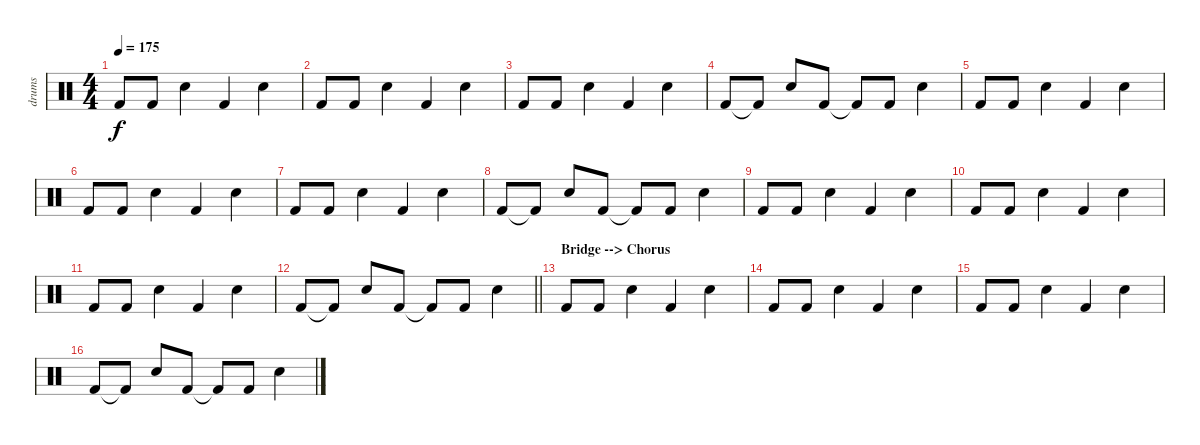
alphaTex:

\track ("drums" "drums") {instrument percussion}
\staff {score}
\articulation defaults
\ts (4 4)
\tempo 175
\clef neutral
\ks c "Kick (hit) 2".8{dy f} "Kick (hit) 2".8 "Snare (hit) 2".4 "Kick (hit) 2".4 "Snare (hit) 2".4
|
"Kick (hit) 2".8 "Kick (hit) 2".8 "Snare (hit) 2".4 "Kick (hit) 2".4 "Snare (hit) 2".4 |
"Kick (hit) 2".8 "Kick (hit) 2".8 "Snare (hit) 2".4 "Kick (hit) 2".4 "Snare (hit) 2".4 |
"Kick (hit) 2".8 "Kick (hit) 2"{t}.8 "Snare (hit) 2".8 "Kick (hit) 2".8 "Kick (hit) 2"{t}.8 "Kick (hit) 2".8 "Snare (hit) 2".4 |
"Kick (hit) 2".8 "Kick (hit) 2".8 "Snare (hit) 2".4 "Kick (hit) 2".4 "Snare (hit) 2".4 |
"Kick (hit) 2".8 "Kick (hit) 2".8 "Snare (hit) 2".4 "Kick (hit) 2".4 "Snare (hit) 2".4 |
"Kick (hit) 2".8 "Kick (hit) 2".8 "Snare (hit) 2".4 "Kick (hit) 2".4 "Snare (hit) 2".4 |
"Kick (hit) 2".8 "Kick (hit) 2"{t}.8 "Snare (hit) 2".8 "Kick (hit) 2".8 "Kick (hit) 2"{t}.8 "Kick (hit) 2".8 "Snare (hit) 2".4 |
"Kick (hit) 2".8 "Kick (hit) 2".8 "Snare (hit) 2".4 "Kick (hit) 2".4 "Snare (hit) 2".4 |
"Kick (hit) 2".8 "Kick (hit) 2".8 "Snare (hit) 2".4 "Kick (hit) 2".4 "Snare (hit) 2".4 |
"Kick (hit) 2".8 "Kick (hit) 2".8 "Snare (hit) 2".4 "Kick (hit) 2".4 "Snare (hit) 2".4 |
\barLineRight lightlight "Kick (hit) 2".8 "Kick (hit) 2"{t}.8 "Snare (hit) 2".8 "Kick (hit) 2".8 "Kick (hit) 2"{t}.8 "Kick (hit) 2".8 "Snare (hit) 2".4
|
\section ("" "Bridge --> Chorus")
"Kick (hit) 2".8 "Kick (hit) 2".8 "Snare (hit) 2".4 "Kick (hit) 2".4 "Snare (hit) 2".4 |
"Kick (hit) 2".8 "Kick (hit) 2".8 "Snare (hit) 2".4 "Kick (hit) 2".4 "Snare (hit) 2".4 |
"Kick (hit) 2".8 "Kick (hit) 2".8 "Snare (hit) 2".4 "Kick (hit) 2".4 "Snare (hit) 2".4 |
"Kick (hit) 2".8 "Kick (hit) 2"{t}.8 "Snare (hit) 2".8 "Kick (hit) 2".8 "Kick (hit) 2"{t}.8 "Kick (hit) 2".8 "Snare (hit) 2".4
